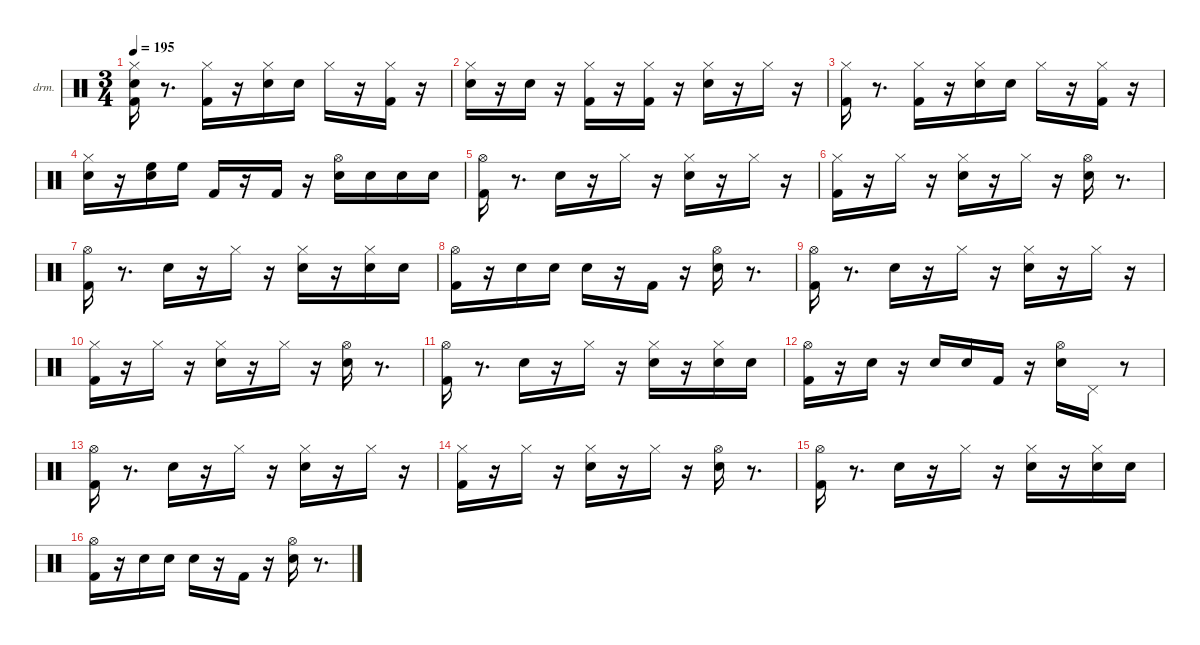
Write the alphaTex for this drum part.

\hideDynamics
\bracketExtendMode nobrackets
\firstSystemTrackNameOrientation horizontal
\otherSystemsTrackNameOrientation horizontal
\track ("EZdrummer 3" "drm.") {instrument percussion}
\staff {score}
\articulation defaults
\ts (3 4)
\tempo 195
\clef neutral
\ks aminor
("Hi-Hat (closed)"{acc #} "Kick (hit) 2" "Snare (hit) 2").16{dy p beam Down} r.8{d beam Down} ("Kick (hit) 2" "Hi-Hat (closed)"{acc #}).16{dy mf beam Down} r.16{beam Down} ("Snare (hit) 2" "Hi-Hat (closed)"{acc #}).16{dy f beam Down} "Snare (hit) 2".16{dy pp beam Down} "Hi-Hat (closed)"{acc #}.16{dy ppp beam Down} r.16{beam Down} ("Kick (hit) 2" "Hi-Hat (closed)"{acc #}).16{dy f beam Down} r.16{beam Down} |
("Snare (hit) 2" "Hi-Hat (closed)"{acc #}).16{dy ff beam Down} r.16{beam Down} "Snare (hit) 2".16{dy ppp beam Down} r.16{beam Down} ("Kick (hit) 2" "Hi-Hat (closed)"{acc #}).16{beam Down} r.16{beam Down} ("Kick (hit) 2" "Hi-Hat (closed)"{acc #}).16{beam Down} r.16{beam Down} ("Snare (hit) 2" "Hi-Hat (closed)"{acc #}).16{dy fff beam Down} r.16{beam Down} "Hi-Hat (closed)"{acc #}.16{dy ppp beam Down} r.16{beam Down} |
("Kick (hit) 2" "Hi-Hat (closed)"{acc #}).16{dy ff beam Down} r.8{d beam Down} ("Kick (hit) 2" "Hi-Hat (closed)"{acc #}).16{dy mp beam Down} r.16{beam Down} ("Snare (hit) 2" "Hi-Hat (closed)"{acc #}).16{dy f beam Down} "Snare (hit) 2".16{dy pp beam Down} "Hi-Hat (closed)"{acc #}.16{dy ppp beam Down} r.16{beam Down} ("Kick (hit) 2" "Hi-Hat (closed)"{acc #}).16{dy f beam Down} r.16{beam Down} |
("Snare (hit) 2" "Hi-Hat (closed)"{acc #}).16{dy ff beam Down} r.16{beam Down} ("Snare (hit) 2" "High Floor Tom (hit)").16{dy ppp beam Down} "High Floor Tom (hit)".16{dy mf beam Down} "Kick (hit) 2".16{beam Up} r.16{beam Up} "Kick (hit) 2".16{dy ff beam Up} r.16{beam Up} ("Snare (hit) 2" "Hi-Hat (open)"{acc #}).16{beam Down} "Snare (hit) 2".16{dy pp beam Down} "Snare (hit) 2".16{dy ppp beam Down} "Snare (hit) 2".16{beam Down} |
("Kick (hit) 2" "Hi-Hat (open)"{acc #}).16{dy fff beam Down} r.8{d beam Down} "Snare (hit) 2".16{dy ff beam Down} r.16{beam Down} "Hi-Hat (closed)"{acc #}.16{dy ppp beam Down} r.16{beam Down} ("Snare (hit) 2" "Hi-Hat (closed)"{acc #}).16{dy f beam Down} r.16{beam Down} "Hi-Hat (closed)"{acc #}.16{dy pp beam Down} r.16{beam Down} |
("Kick (hit) 2" "Hi-Hat (closed)"{acc #}).16{dy fff beam Down} r.16{beam Down} "Hi-Hat (closed)"{acc #}.16{dy ppp beam Down} r.16{beam Down} ("Snare (hit) 2" "Hi-Hat (closed)"{acc #}).16{dy f beam Down} r.16{beam Down} "Hi-Hat (closed)"{acc #}.16{dy ppp beam Down} r.16{beam Down} ("Snare (hit) 2" "Hi-Hat (open)"{acc #}).16{dy ff beam Down} r.8{d beam Down} |
("Kick (hit) 2" "Hi-Hat (open)"{acc #}).16{dy fff beam Down} r.8{d beam Down} "Snare (hit) 2".16{dy f beam Down} r.16{beam Down} "Hi-Hat (closed)"{acc #}.16{dy ppp beam Down} r.16{beam Down} ("Snare (hit) 2" "Hi-Hat (closed)"{acc #}).16{dy mf beam Down} r.16{beam Down} ("Snare (hit) 2" "Hi-Hat (closed)"{acc #}).16{dy pp beam Down} "Snare (hit) 2".16{beam Down} |
("Kick (hit) 2" "Hi-Hat (open)"{acc #}).16{dy fff beam Down} r.16{beam Down} "Snare (hit) 2".16{dy mf beam Down} "Snare (hit) 2".16{dy p beam Down} "Snare (hit) 2".16{dy fff beam Down} r.16{beam Down} "Kick (hit) 2".16{dy f beam Up} r.16{beam Up} ("Snare (hit) 2" "Hi-Hat (open)"{acc #}).16{dy fff beam Down} r.8{d beam Down} |
("Kick (hit) 2" "Hi-Hat (open)"{acc #}).16{dy ff beam Down} r.8{d beam Down} "Snare (hit) 2".16{beam Down} r.16{beam Down} "Hi-Hat (closed)"{acc #}.16{dy ppp beam Down} r.16{beam Down} ("Snare (hit) 2" "Hi-Hat (closed)"{acc #}).16{dy f beam Down} r.16{beam Down} "Hi-Hat (closed)"{acc #}.16{dy pp beam Down} r.16{beam Down} |
("Kick (hit) 2" "Hi-Hat (closed)"{acc #}).16{dy fff beam Down} r.16{beam Down} "Hi-Hat (closed)"{acc #}.16{dy ppp beam Down} r.16{beam Down} ("Snare (hit) 2" "Hi-Hat (closed)"{acc #}).16{dy f beam Down} r.16{beam Down} "Hi-Hat (closed)"{acc #}.16{dy ppp beam Down} r.16{beam Down} ("Snare (hit) 2" "Hi-Hat (open)"{acc #}).16{dy f beam Down} r.8{d beam Down} |
("Kick (hit) 2" "Hi-Hat (open)"{acc #}).16{dy fff beam Down} r.8{d beam Down} "Snare (hit) 2".16{dy f beam Down} r.16{beam Down} "Hi-Hat (closed)"{acc #}.16{dy ppp beam Down} r.16{beam Down} ("Snare (hit) 2" "Hi-Hat (closed)"{acc #}).16{dy f beam Down} r.16{beam Down} ("Snare (hit) 2" "Hi-Hat (closed)"{acc #}).16{dy mp beam Down} "Snare (hit) 2".16{dy pp beam Down} |
("Kick (hit) 2" "Hi-Hat (open)"{acc #}).16{dy f beam Down} r.16{beam Down} "Snare (hit) 2".16{dy ff beam Down} r.16{beam Down} "Snare (hit) 2".16{dy mp beam Up} "Snare (hit) 2".16{dy ppp beam Up} "Kick (hit) 2".16{dy mf beam Up} r.16{beam Up} ("Snare (hit) 2" "Hi-Hat (open)"{acc #}).16{dy fff beam Down} "Pedal Hi-Hat (hit)"{acc #}.16{dy ppp beam Down} r.8{beam Down} |
("Kick (hit) 2" "Hi-Hat (open)"{acc #}).16{dy ff beam Down} r.8{d beam Down} "Snare (hit) 2".16{beam Down} r.16{beam Down} "Hi-Hat (closed)"{acc #}.16{dy ppp beam Down} r.16{beam Down} ("Snare (hit) 2" "Hi-Hat (closed)"{acc #}).16{dy f beam Down} r.16{beam Down} "Hi-Hat (closed)"{acc #}.16{dy pp beam Down} r.16{beam Down} |
("Kick (hit) 2" "Hi-Hat (closed)"{acc #}).16{dy fff beam Down} r.16{beam Down} "Hi-Hat (closed)"{acc #}.16{dy ppp beam Down} r.16{beam Down} ("Snare (hit) 2" "Hi-Hat (closed)"{acc #}).16{dy f beam Down} r.16{beam Down} "Hi-Hat (closed)"{acc #}.16{dy ppp beam Down} r.16{beam Down} ("Snare (hit) 2" "Hi-Hat (open)"{acc #}).16{dy f beam Down} r.8{d beam Down} |
("Kick (hit) 2" "Hi-Hat (open)"{acc #}).16{dy fff beam Down} r.8{d beam Down} "Snare (hit) 2".16{dy f beam Down} r.16{beam Down} "Hi-Hat (closed)"{acc #}.16{dy ppp beam Down} r.16{beam Down} ("Snare (hit) 2" "Hi-Hat (closed)"{acc #}).16{dy f beam Down} r.16{beam Down} ("Snare (hit) 2" "Hi-Hat (closed)"{acc #}).16{dy mp beam Down} "Snare (hit) 2".16{dy pp beam Down} |
("Kick (hit) 2" "Hi-Hat (open)"{acc #}).16{dy fff beam Down} r.16{beam Down} "Snare (hit) 2".16{dy mf beam Down} "Snare (hit) 2".16{dy p beam Down} "Snare (hit) 2".16{dy fff beam Down} r.16{beam Down} "Kick (hit) 2".16{dy f beam Up} r.16{beam Up} ("Snare (hit) 2" "Hi-Hat (open)"{acc #}).16{beam Down} r.8{d beam Down}
